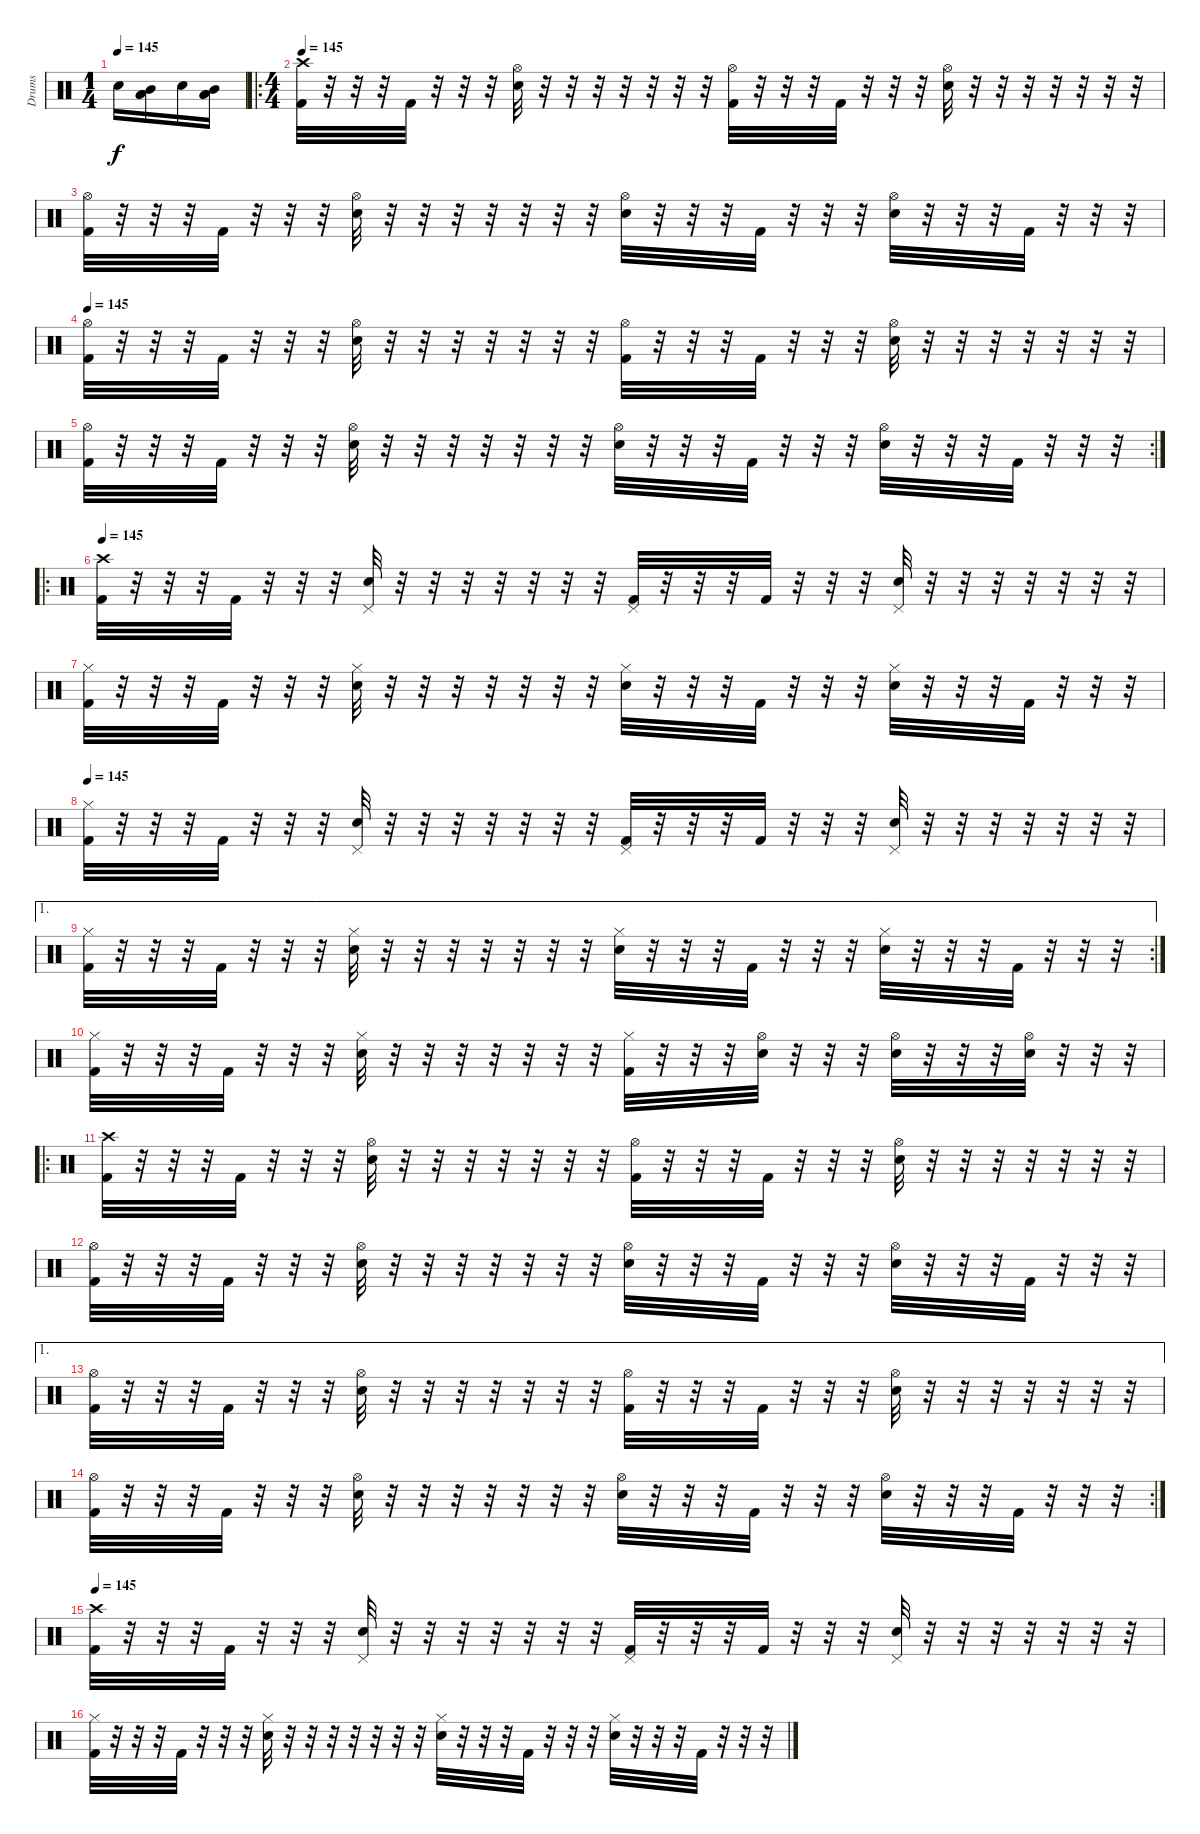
\track ("Drums" "Drums") {instrument percussion}
\staff {score}
\articulation defaults
\ts (1 4)
\tempo 145
\tempo 75
\tempo 145
\clef neutral
\ks c "Electric Snare (hit)".16{dy f}
("Mid Tom (hit)" "Low Tom (hit)" "Low Floor Tom (hit)").16 "Electric Snare (hit)".16 ("Mid Tom (hit)" "Low Tom (hit)" "Low Floor Tom (hit)").16 |
\ro
\ts (4 4)
\tempo 145
("Crash high (hit)" "Kick (hit) 2").32 r.32 r.32 r.32 "Kick (hit) 2".32 r.32 r.32 r.32 ("Hi-Hat (open)" "Snare (hit) 2").32 r.32 r.32 r.32 r.32 r.32 r.32 r.32 ("Hi-Hat (open)" "Kick (hit) 2").32 r.32 r.32 r.32 "Kick (hit) 2".32 r.32 r.32 r.32 ("Hi-Hat (open)" "Snare (hit) 2").32 r.32 r.32 r.32 r.32 r.32 r.32 r.32 |
("Hi-Hat (open)" "Kick (hit) 2").32 r.32 r.32 r.32 "Kick (hit) 2".32 r.32 r.32 r.32 ("Hi-Hat (open)" "Snare (hit) 2").32 r.32 r.32 r.32 r.32 r.32 r.32 r.32 ("Hi-Hat (open)" "Snare (hit) 2").32 r.32 r.32 r.32 "Kick (hit) 2".32 r.32 r.32 r.32 ("Hi-Hat (open)" "Snare (hit) 2").32 r.32 r.32 r.32 "Kick (hit) 2".32 r.32 r.32 r.32 |
\tempo 145
("Hi-Hat (open)" "Kick (hit) 2").32 r.32 r.32 r.32 "Kick (hit) 2".32 r.32 r.32 r.32 ("Hi-Hat (open)" "Snare (hit) 2").32 r.32 r.32 r.32 r.32 r.32 r.32 r.32 ("Hi-Hat (open)" "Kick (hit) 2").32 r.32 r.32 r.32 "Kick (hit) 2".32 r.32 r.32 r.32 ("Hi-Hat (open)" "Snare (hit) 2").32 r.32 r.32 r.32 r.32 r.32 r.32 r.32 |
\rc 2
("Hi-Hat (open)" "Kick (hit) 2").32 r.32 r.32 r.32 "Kick (hit) 2".32 r.32 r.32 r.32 ("Hi-Hat (open)" "Snare (hit) 2").32 r.32 r.32 r.32 r.32 r.32 r.32 r.32 ("Hi-Hat (open)" "Snare (hit) 2").32 r.32 r.32 r.32 "Kick (hit) 2".32 r.32 r.32 r.32 ("Hi-Hat (open)" "Snare (hit) 2").32 r.32 r.32 r.32 "Kick (hit) 2".32 r.32 r.32 r.32 |
\ro
\tempo 145
("Crash high (hit)" "Kick (hit) 2").32 r.32 r.32 r.32 "Kick (hit) 2".32 r.32 r.32 r.32 ("Pedal Hi-Hat (hit)" "Snare (hit) 2").32 r.32 r.32 r.32 r.32 r.32 r.32 r.32 ("Pedal Hi-Hat (hit)" "Kick (hit) 2").32 r.32 r.32 r.32 "Kick (hit) 2".32 r.32 r.32 r.32 ("Pedal Hi-Hat (hit)" "Snare (hit) 2").32 r.32 r.32 r.32 r.32 r.32 r.32 r.32 |
("Hi-Hat (closed)" "Kick (hit) 2").32 r.32 r.32 r.32 "Kick (hit) 2".32 r.32 r.32 r.32 ("Hi-Hat (closed)" "Snare (hit) 2").32 r.32 r.32 r.32 r.32 r.32 r.32 r.32 ("Hi-Hat (closed)" "Snare (hit) 2").32 r.32 r.32 r.32 "Kick (hit) 2".32 r.32 r.32 r.32 ("Hi-Hat (closed)" "Snare (hit) 2").32 r.32 r.32 r.32 "Kick (hit) 2".32 r.32 r.32 r.32 |
\tempo 145
("Hi-Hat (closed)" "Kick (hit) 2").32 r.32 r.32 r.32 "Kick (hit) 2".32 r.32 r.32 r.32 ("Pedal Hi-Hat (hit)" "Snare (hit) 2").32 r.32 r.32 r.32 r.32 r.32 r.32 r.32 ("Pedal Hi-Hat (hit)" "Kick (hit) 2").32 r.32 r.32 r.32 "Kick (hit) 2".32 r.32 r.32 r.32 ("Pedal Hi-Hat (hit)" "Snare (hit) 2").32 r.32 r.32 r.32 r.32 r.32 r.32 r.32 |
\ae 1
\rc 2
("Hi-Hat (closed)" "Kick (hit) 2").32 r.32 r.32 r.32 "Kick (hit) 2".32 r.32 r.32 r.32 ("Hi-Hat (closed)" "Snare (hit) 2").32 r.32 r.32 r.32 r.32 r.32 r.32 r.32 ("Hi-Hat (closed)" "Snare (hit) 2").32 r.32 r.32 r.32 "Kick (hit) 2".32 r.32 r.32 r.32 ("Hi-Hat (closed)" "Snare (hit) 2").32 r.32 r.32 r.32 "Kick (hit) 2".32 r.32 r.32 r.32 |
("Hi-Hat (closed)" "Kick (hit) 2").32 r.32 r.32 r.32 "Kick (hit) 2".32 r.32 r.32 r.32 ("Hi-Hat (closed)" "Snare (hit) 2").32 r.32 r.32 r.32 r.32 r.32 r.32 r.32 ("Hi-Hat (closed)" "Kick (hit) 2").32 r.32 r.32 r.32 ("Hi-Hat (open)" "Snare (hit) 2").32 r.32 r.32 r.32 ("Hi-Hat (open)" "Snare (hit) 2").32 r.32 r.32 r.32 ("Hi-Hat (open)" "Snare (hit) 2").32 r.32 r.32 r.32 |
\ro
("Crash high (hit)" "Kick (hit) 2").32 r.32 r.32 r.32 "Kick (hit) 2".32 r.32 r.32 r.32 ("Hi-Hat (open)" "Snare (hit) 2").32 r.32 r.32 r.32 r.32 r.32 r.32 r.32 ("Hi-Hat (open)" "Kick (hit) 2").32 r.32 r.32 r.32 "Kick (hit) 2".32 r.32 r.32 r.32 ("Hi-Hat (open)" "Snare (hit) 2").32 r.32 r.32 r.32 r.32 r.32 r.32 r.32 |
("Hi-Hat (open)" "Kick (hit) 2").32 r.32 r.32 r.32 "Kick (hit) 2".32 r.32 r.32 r.32 ("Hi-Hat (open)" "Snare (hit) 2").32 r.32 r.32 r.32 r.32 r.32 r.32 r.32 ("Hi-Hat (open)" "Snare (hit) 2").32 r.32 r.32 r.32 "Kick (hit) 2".32 r.32 r.32 r.32 ("Hi-Hat (open)" "Snare (hit) 2").32 r.32 r.32 r.32 "Kick (hit) 2".32 r.32 r.32 r.32 |
\ae 1
("Hi-Hat (open)" "Kick (hit) 2").32 r.32 r.32 r.32 "Kick (hit) 2".32 r.32 r.32 r.32 ("Hi-Hat (open)" "Snare (hit) 2").32 r.32 r.32 r.32 r.32 r.32 r.32 r.32 ("Hi-Hat (open)" "Kick (hit) 2").32 r.32 r.32 r.32 "Kick (hit) 2".32 r.32 r.32 r.32 ("Hi-Hat (open)" "Snare (hit) 2").32 r.32 r.32 r.32 r.32 r.32 r.32 r.32 |
\rc 2
("Hi-Hat (open)" "Kick (hit) 2").32 r.32 r.32 r.32 "Kick (hit) 2".32 r.32 r.32 r.32 ("Hi-Hat (open)" "Snare (hit) 2").32 r.32 r.32 r.32 r.32 r.32 r.32 r.32 ("Hi-Hat (open)" "Snare (hit) 2").32 r.32 r.32 r.32 "Kick (hit) 2".32 r.32 r.32 r.32 ("Hi-Hat (open)" "Snare (hit) 2").32 r.32 r.32 r.32 "Kick (hit) 2".32 r.32 r.32 r.32 |
\tempo 145
("Crash high (hit)" "Kick (hit) 2").32 r.32 r.32 r.32 "Kick (hit) 2".32 r.32 r.32 r.32 ("Pedal Hi-Hat (hit)" "Snare (hit) 2").32 r.32 r.32 r.32 r.32 r.32 r.32 r.32 ("Pedal Hi-Hat (hit)" "Kick (hit) 2").32 r.32 r.32 r.32 "Kick (hit) 2".32 r.32 r.32 r.32 ("Pedal Hi-Hat (hit)" "Snare (hit) 2").32 r.32 r.32 r.32 r.32 r.32 r.32 r.32 |
("Hi-Hat (closed)" "Kick (hit) 2").32 r.32 r.32 r.32 "Kick (hit) 2".32 r.32 r.32 r.32 ("Hi-Hat (closed)" "Snare (hit) 2").32 r.32 r.32 r.32 r.32 r.32 r.32 r.32 ("Hi-Hat (closed)" "Snare (hit) 2").32 r.32 r.32 r.32 "Kick (hit) 2".32 r.32 r.32 r.32 ("Hi-Hat (closed)" "Snare (hit) 2").32 r.32 r.32 r.32 "Kick (hit) 2".32 r.32 r.32 r.32
